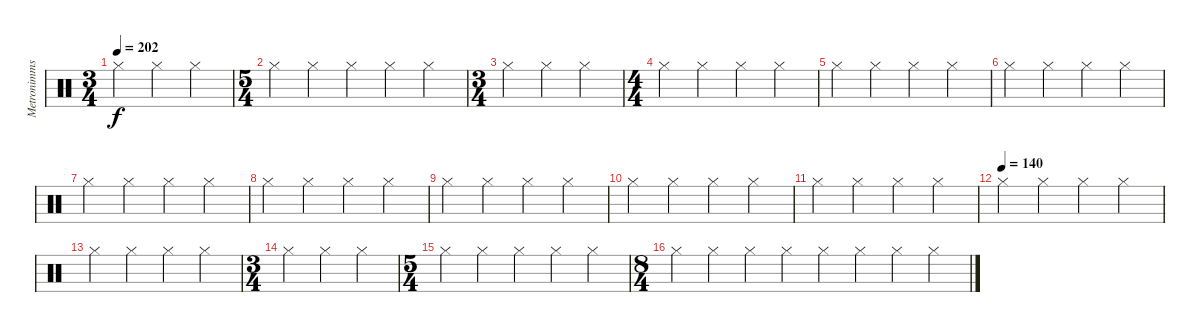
\track ("Metronimms" "Metronimms") {instrument percussion}
\staff {score}
\articulation defaults
\ts (3 4)
\tempo 202
\clef neutral
\ks c "Hi-Hat (closed)".4{dy f} "Hi-Hat (closed)".4 "Hi-Hat (closed)".4
|
\ts (5 4)
"Hi-Hat (closed)".4 "Hi-Hat (closed)".4 "Hi-Hat (closed)".4 "Hi-Hat (closed)".4 "Hi-Hat (closed)".4 |
\ts (3 4)
"Hi-Hat (closed)".4 "Hi-Hat (closed)".4 "Hi-Hat (closed)".4 |
\ts (4 4)
"Hi-Hat (closed)".4 "Hi-Hat (closed)".4 "Hi-Hat (closed)".4 "Hi-Hat (closed)".4 |
"Hi-Hat (closed)".4 "Hi-Hat (closed)".4 "Hi-Hat (closed)".4 "Hi-Hat (closed)".4 |
"Hi-Hat (closed)".4 "Hi-Hat (closed)".4 "Hi-Hat (closed)".4 "Hi-Hat (closed)".4 |
"Hi-Hat (closed)".4 "Hi-Hat (closed)".4 "Hi-Hat (closed)".4 "Hi-Hat (closed)".4 |
"Hi-Hat (closed)".4 "Hi-Hat (closed)".4 "Hi-Hat (closed)".4 "Hi-Hat (closed)".4 |
"Hi-Hat (closed)".4 "Hi-Hat (closed)".4 "Hi-Hat (closed)".4 "Hi-Hat (closed)".4 |
"Hi-Hat (closed)".4 "Hi-Hat (closed)".4 "Hi-Hat (closed)".4 "Hi-Hat (closed)".4 |
"Hi-Hat (closed)".4 "Hi-Hat (closed)".4 "Hi-Hat (closed)".4 "Hi-Hat (closed)".4 |
\tempo (140)
"Hi-Hat (closed)".4 "Hi-Hat (closed)".4 "Hi-Hat (closed)".4 "Hi-Hat (closed)".4 |
"Hi-Hat (closed)".4 "Hi-Hat (closed)".4 "Hi-Hat (closed)".4 "Hi-Hat (closed)".4 |
\ts (3 4)
"Hi-Hat (closed)".4 "Hi-Hat (closed)".4 "Hi-Hat (closed)".4 |
\ts (5 4)
"Hi-Hat (closed)".4 "Hi-Hat (closed)".4 "Hi-Hat (closed)".4 "Hi-Hat (closed)".4 "Hi-Hat (closed)".4 |
\ts (8 4)
"Hi-Hat (closed)".4 "Hi-Hat (closed)".4 "Hi-Hat (closed)".4 "Hi-Hat (closed)".4 "Hi-Hat (closed)".4 "Hi-Hat (closed)".4 "Hi-Hat (closed)".4 "Hi-Hat (closed)".4
